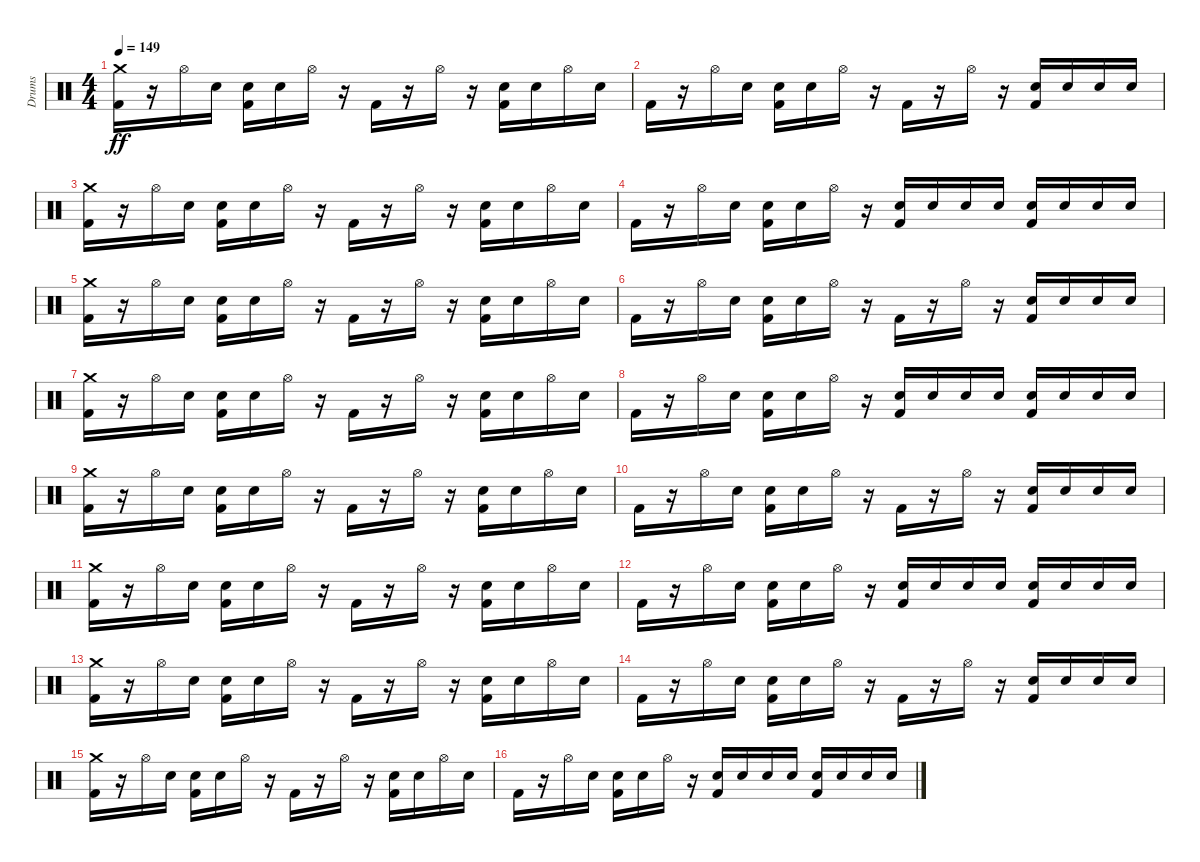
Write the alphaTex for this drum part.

\track ("Drums" "Drums") {instrument percussion}
\staff {score}
\articulation defaults
\ts (4 4)
\tempo 149
\clef neutral
\ks c
("Crash medium (hit)" "Kick (hit) 2").16{dy ff} r.16 "Hi-Hat (open)".16 "Electric Snare (hit)".16 ("Electric Snare (hit)" "Kick (hit) 2").16 "Electric Snare (hit)".16 "Hi-Hat (open)".16 r.16 "Kick (hit) 2".16 r.16 "Hi-Hat (open)".16 r.16 ("Electric Snare (hit)" "Kick (hit) 2").16 "Electric Snare (hit)".16 "Hi-Hat (open)".16 "Electric Snare (hit)".16 |
"Kick (hit) 2".16 r.16 "Hi-Hat (open)".16 "Electric Snare (hit)".16 ("Electric Snare (hit)" "Kick (hit) 2").16 "Electric Snare (hit)".16 "Hi-Hat (open)".16 r.16 "Kick (hit) 2".16 r.16 "Hi-Hat (open)".16 r.16 ("Electric Snare (hit)" "Kick (hit) 2").16 "Electric Snare (hit)".16 "Electric Snare (hit)".16 "Electric Snare (hit)".16 |
("Crash medium (hit)" "Kick (hit) 2").16 r.16 "Hi-Hat (open)".16 "Electric Snare (hit)".16 ("Electric Snare (hit)" "Kick (hit) 2").16 "Electric Snare (hit)".16 "Hi-Hat (open)".16 r.16 "Kick (hit) 2".16 r.16 "Hi-Hat (open)".16 r.16 ("Electric Snare (hit)" "Kick (hit) 2").16 "Electric Snare (hit)".16 "Hi-Hat (open)".16 "Electric Snare (hit)".16 |
"Kick (hit) 2".16 r.16 "Hi-Hat (open)".16 "Electric Snare (hit)".16 ("Electric Snare (hit)" "Kick (hit) 2").16 "Electric Snare (hit)".16 "Hi-Hat (open)".16 r.16 ("Electric Snare (hit)" "Kick (hit) 2").16 "Electric Snare (hit)".16 "Electric Snare (hit)".16 "Electric Snare (hit)".16 ("Electric Snare (hit)" "Kick (hit) 2").16 "Electric Snare (hit)".16 "Electric Snare (hit)".16 "Electric Snare (hit)".16 |
("Crash medium (hit)" "Kick (hit) 2").16 r.16 "Hi-Hat (open)".16 "Electric Snare (hit)".16 ("Electric Snare (hit)" "Kick (hit) 2").16 "Electric Snare (hit)".16 "Hi-Hat (open)".16 r.16 "Kick (hit) 2".16 r.16 "Hi-Hat (open)".16 r.16 ("Electric Snare (hit)" "Kick (hit) 2").16 "Electric Snare (hit)".16 "Hi-Hat (open)".16 "Electric Snare (hit)".16 |
"Kick (hit) 2".16 r.16 "Hi-Hat (open)".16 "Electric Snare (hit)".16 ("Electric Snare (hit)" "Kick (hit) 2").16 "Electric Snare (hit)".16 "Hi-Hat (open)".16 r.16 "Kick (hit) 2".16 r.16 "Hi-Hat (open)".16 r.16 ("Electric Snare (hit)" "Kick (hit) 2").16 "Electric Snare (hit)".16 "Electric Snare (hit)".16 "Electric Snare (hit)".16 |
("Crash medium (hit)" "Kick (hit) 2").16 r.16 "Hi-Hat (open)".16 "Electric Snare (hit)".16 ("Electric Snare (hit)" "Kick (hit) 2").16 "Electric Snare (hit)".16 "Hi-Hat (open)".16 r.16 "Kick (hit) 2".16 r.16 "Hi-Hat (open)".16 r.16 ("Electric Snare (hit)" "Kick (hit) 2").16 "Electric Snare (hit)".16 "Hi-Hat (open)".16 "Electric Snare (hit)".16 |
"Kick (hit) 2".16 r.16 "Hi-Hat (open)".16 "Electric Snare (hit)".16 ("Electric Snare (hit)" "Kick (hit) 2").16 "Electric Snare (hit)".16 "Hi-Hat (open)".16 r.16 ("Electric Snare (hit)" "Kick (hit) 2").16 "Electric Snare (hit)".16 "Electric Snare (hit)".16 "Electric Snare (hit)".16 ("Electric Snare (hit)" "Kick (hit) 2").16 "Electric Snare (hit)".16 "Electric Snare (hit)".16 "Electric Snare (hit)".16 |
("Crash medium (hit)" "Kick (hit) 2").16 r.16 "Hi-Hat (open)".16 "Electric Snare (hit)".16 ("Electric Snare (hit)" "Kick (hit) 2").16 "Electric Snare (hit)".16 "Hi-Hat (open)".16 r.16 "Kick (hit) 2".16 r.16 "Hi-Hat (open)".16 r.16 ("Electric Snare (hit)" "Kick (hit) 2").16 "Electric Snare (hit)".16 "Hi-Hat (open)".16 "Electric Snare (hit)".16 |
"Kick (hit) 2".16 r.16 "Hi-Hat (open)".16 "Electric Snare (hit)".16 ("Electric Snare (hit)" "Kick (hit) 2").16 "Electric Snare (hit)".16 "Hi-Hat (open)".16 r.16 "Kick (hit) 2".16 r.16 "Hi-Hat (open)".16 r.16 ("Electric Snare (hit)" "Kick (hit) 2").16 "Electric Snare (hit)".16 "Electric Snare (hit)".16 "Electric Snare (hit)".16 |
("Crash medium (hit)" "Kick (hit) 2").16 r.16 "Hi-Hat (open)".16 "Electric Snare (hit)".16 ("Electric Snare (hit)" "Kick (hit) 2").16 "Electric Snare (hit)".16 "Hi-Hat (open)".16 r.16 "Kick (hit) 2".16 r.16 "Hi-Hat (open)".16 r.16 ("Electric Snare (hit)" "Kick (hit) 2").16 "Electric Snare (hit)".16 "Hi-Hat (open)".16 "Electric Snare (hit)".16 |
"Kick (hit) 2".16 r.16 "Hi-Hat (open)".16 "Electric Snare (hit)".16 ("Electric Snare (hit)" "Kick (hit) 2").16 "Electric Snare (hit)".16 "Hi-Hat (open)".16 r.16 ("Electric Snare (hit)" "Kick (hit) 2").16 "Electric Snare (hit)".16 "Electric Snare (hit)".16 "Electric Snare (hit)".16 ("Electric Snare (hit)" "Kick (hit) 2").16 "Electric Snare (hit)".16 "Electric Snare (hit)".16 "Electric Snare (hit)".16 |
("Crash medium (hit)" "Kick (hit) 2").16 r.16 "Hi-Hat (open)".16 "Electric Snare (hit)".16 ("Electric Snare (hit)" "Kick (hit) 2").16 "Electric Snare (hit)".16 "Hi-Hat (open)".16 r.16 "Kick (hit) 2".16 r.16 "Hi-Hat (open)".16 r.16 ("Electric Snare (hit)" "Kick (hit) 2").16 "Electric Snare (hit)".16 "Hi-Hat (open)".16 "Electric Snare (hit)".16 |
"Kick (hit) 2".16 r.16 "Hi-Hat (open)".16 "Electric Snare (hit)".16 ("Electric Snare (hit)" "Kick (hit) 2").16 "Electric Snare (hit)".16 "Hi-Hat (open)".16 r.16 "Kick (hit) 2".16 r.16 "Hi-Hat (open)".16 r.16 ("Electric Snare (hit)" "Kick (hit) 2").16 "Electric Snare (hit)".16 "Electric Snare (hit)".16 "Electric Snare (hit)".16 |
("Crash medium (hit)" "Kick (hit) 2").16 r.16 "Hi-Hat (open)".16 "Electric Snare (hit)".16 ("Electric Snare (hit)" "Kick (hit) 2").16 "Electric Snare (hit)".16 "Hi-Hat (open)".16 r.16 "Kick (hit) 2".16 r.16 "Hi-Hat (open)".16 r.16 ("Electric Snare (hit)" "Kick (hit) 2").16 "Electric Snare (hit)".16 "Hi-Hat (open)".16 "Electric Snare (hit)".16 |
"Kick (hit) 2".16 r.16 "Hi-Hat (open)".16 "Electric Snare (hit)".16 ("Electric Snare (hit)" "Kick (hit) 2").16 "Electric Snare (hit)".16 "Hi-Hat (open)".16 r.16 ("Electric Snare (hit)" "Kick (hit) 2").16 "Electric Snare (hit)".16 "Electric Snare (hit)".16 "Electric Snare (hit)".16 ("Electric Snare (hit)" "Kick (hit) 2").16 "Electric Snare (hit)".16 "Electric Snare (hit)".16 "Electric Snare (hit)".16
